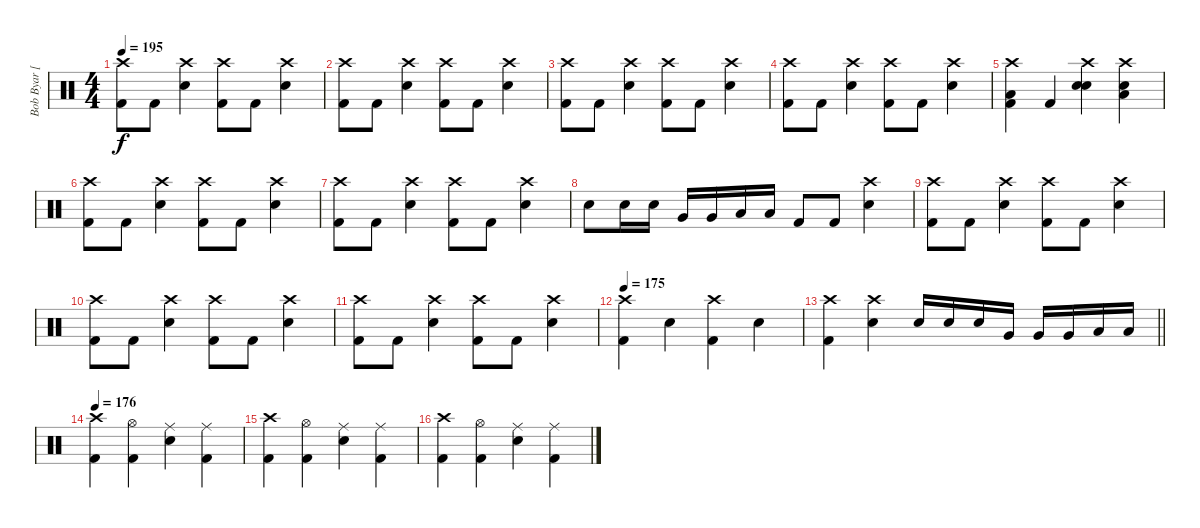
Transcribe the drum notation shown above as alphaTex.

\track ("Bob Byar [Drums]" "Bob Byar [") {instrument percussion}
\staff {score}
\articulation defaults
\ts (4 4)
\tempo 195
\clef neutral
\ks c
("Crash high (hit)" "Kick (hit) 2").8{dy f} "Kick (hit) 2".8 ("Crash high (hit)" "Electric Snare (hit)").4 ("Crash high (hit)" "Kick (hit) 2").8 "Kick (hit) 2".8 ("Crash high (hit)" "Electric Snare (hit)").4 |
("Crash high (hit)" "Kick (hit) 2").8 "Kick (hit) 2".8 ("Crash high (hit)" "Electric Snare (hit)").4 ("Crash high (hit)" "Kick (hit) 2").8 "Kick (hit) 2".8 ("Crash high (hit)" "Electric Snare (hit)").4 |
("Crash high (hit)" "Kick (hit) 2").8 "Kick (hit) 2".8 ("Crash high (hit)" "Electric Snare (hit)").4 ("Crash high (hit)" "Kick (hit) 2").8 "Kick (hit) 2".8 ("Crash high (hit)" "Electric Snare (hit)").4 |
("Crash high (hit)" "Kick (hit) 2").8 "Kick (hit) 2".8 ("Crash high (hit)" "Electric Snare (hit)").4 ("Crash high (hit)" "Kick (hit) 2").8 "Kick (hit) 2".8 ("Crash high (hit)" "Electric Snare (hit)").4 |
("Crash high (hit)" "Low Floor Tom (hit)" "Kick (hit) 2").4 "Kick (hit) 2".4 ("Crash high (hit)" "Electric Snare (hit)" "Electric Snare (hit)").4 ("Crash high (hit)" "Electric Snare (hit)" "Low Floor Tom (hit)").4 |
("Crash high (hit)" "Kick (hit) 2").8 "Kick (hit) 2".8 ("Crash high (hit)" "Electric Snare (hit)").4 ("Crash high (hit)" "Kick (hit) 2").8 "Kick (hit) 2".8 ("Crash high (hit)" "Electric Snare (hit)").4 |
("Crash high (hit)" "Kick (hit) 2").8 "Kick (hit) 2".8 ("Crash high (hit)" "Electric Snare (hit)").4 ("Crash high (hit)" "Kick (hit) 2").8 "Kick (hit) 2".8 ("Crash high (hit)" "Electric Snare (hit)").4 |
"Electric Snare (hit)".8 "Electric Snare (hit)".16 "Electric Snare (hit)".16 "Very Low Tom (hit)".16 "Very Low Tom (hit)".16 "Low Floor Tom (hit)".16 "Low Floor Tom (hit)".16 "Kick (hit) 2".8 "Kick (hit) 2".8 ("Crash high (hit)" "Electric Snare (hit)").4 |
("Crash high (hit)" "Kick (hit) 2").8 "Kick (hit) 2".8 ("Crash high (hit)" "Electric Snare (hit)").4 ("Crash high (hit)" "Kick (hit) 2").8 "Kick (hit) 2".8 ("Crash high (hit)" "Electric Snare (hit)").4 |
("Crash high (hit)" "Kick (hit) 2").8 "Kick (hit) 2".8 ("Crash high (hit)" "Electric Snare (hit)").4 ("Crash high (hit)" "Kick (hit) 2").8 "Kick (hit) 2".8 ("Crash high (hit)" "Electric Snare (hit)").4 |
("Crash high (hit)" "Kick (hit) 2").8 "Kick (hit) 2".8 ("Crash high (hit)" "Electric Snare (hit)").4 ("Crash high (hit)" "Kick (hit) 2").8 "Kick (hit) 2".8 ("Crash high (hit)" "Electric Snare (hit)").4 |
\tempo 175
("Crash high (hit)" "Kick (hit) 2").4 "Electric Snare (hit)".4 ("Crash high (hit)" "Kick (hit) 2").4 "Electric Snare (hit)".4 |
\barLineRight lightlight
("Crash high (hit)" "Kick (hit) 2").4 ("Crash high (hit)" "Electric Snare (hit)").4 "Electric Snare (hit)".16 "Electric Snare (hit)".16 "Electric Snare (hit)".16 "Very Low Tom (hit)".16 "Very Low Tom (hit)".16 "Very Low Tom (hit)".16 "Low Floor Tom (hit)".16 "Low Floor Tom (hit)".16 |
\tempo 176
("Crash high (hit)" "Kick (hit) 2").4 ("Hi-Hat (open)" "Kick (hit) 2").4 ("Ride (middle)" "Electric Snare (hit)").4 ("Ride (middle)" "Kick (hit) 2").4 |
("Crash high (hit)" "Kick (hit) 2").4 ("Hi-Hat (open)" "Kick (hit) 2").4 ("Ride (middle)" "Electric Snare (hit)").4 ("Ride (middle)" "Kick (hit) 2").4 |
("Crash high (hit)" "Kick (hit) 2").4 ("Hi-Hat (open)" "Kick (hit) 2").4 ("Ride (middle)" "Electric Snare (hit)").4 ("Ride (middle)" "Kick (hit) 2").4
